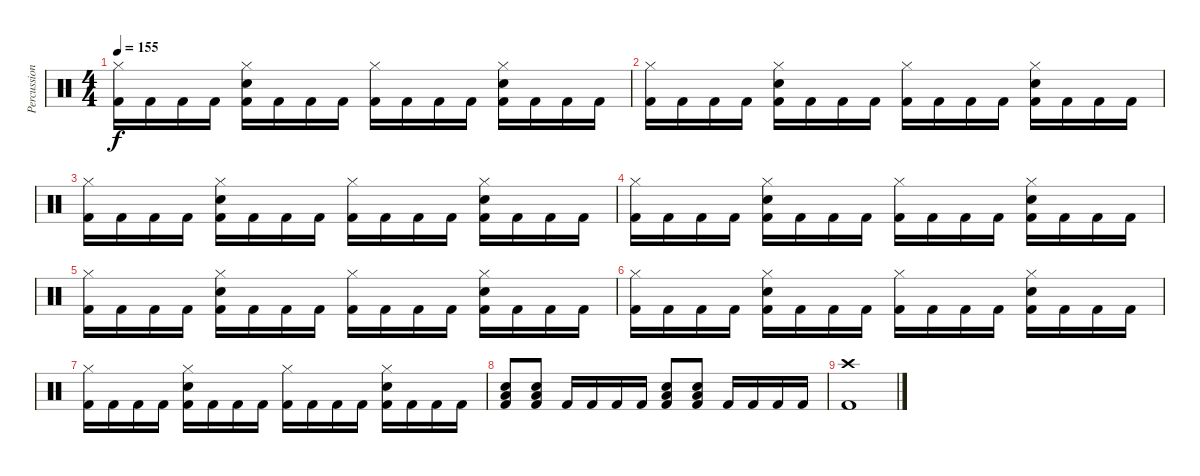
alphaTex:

\track ("Percussion" "Percussion") {instrument percussion}
\staff {score}
\articulation defaults
\ts (4 4)
\tempo 155
\clef neutral
\ks c
("Hi-Hat (closed)" "Kick (hit) 2").16{dy f} "Kick (hit) 2".16 "Kick (hit) 2".16 "Kick (hit) 2".16 ("Hi-Hat (closed)" "Electric Snare (hit)" "Kick (hit) 2").16 "Kick (hit) 2".16 "Kick (hit) 2".16 "Kick (hit) 2".16 ("Hi-Hat (closed)" "Kick (hit) 2").16 "Kick (hit) 2".16 "Kick (hit) 2".16 "Kick (hit) 2".16 ("Hi-Hat (closed)" "Electric Snare (hit)" "Kick (hit) 2").16 "Kick (hit) 2".16 "Kick (hit) 2".16 "Kick (hit) 2".16 |
("Hi-Hat (closed)" "Kick (hit) 2").16 "Kick (hit) 2".16 "Kick (hit) 2".16 "Kick (hit) 2".16 ("Hi-Hat (closed)" "Electric Snare (hit)" "Kick (hit) 2").16 "Kick (hit) 2".16 "Kick (hit) 2".16 "Kick (hit) 2".16 ("Hi-Hat (closed)" "Kick (hit) 2").16 "Kick (hit) 2".16 "Kick (hit) 2".16 "Kick (hit) 2".16 ("Hi-Hat (closed)" "Electric Snare (hit)" "Kick (hit) 2").16 "Kick (hit) 2".16 "Kick (hit) 2".16 "Kick (hit) 2".16 |
("Hi-Hat (closed)" "Kick (hit) 2").16 "Kick (hit) 2".16 "Kick (hit) 2".16 "Kick (hit) 2".16 ("Hi-Hat (closed)" "Electric Snare (hit)" "Kick (hit) 2").16 "Kick (hit) 2".16 "Kick (hit) 2".16 "Kick (hit) 2".16 ("Hi-Hat (closed)" "Kick (hit) 2").16 "Kick (hit) 2".16 "Kick (hit) 2".16 "Kick (hit) 2".16 ("Hi-Hat (closed)" "Electric Snare (hit)" "Kick (hit) 2").16 "Kick (hit) 2".16 "Kick (hit) 2".16 "Kick (hit) 2".16 |
("Hi-Hat (closed)" "Kick (hit) 2").16 "Kick (hit) 2".16 "Kick (hit) 2".16 "Kick (hit) 2".16 ("Hi-Hat (closed)" "Electric Snare (hit)" "Kick (hit) 2").16 "Kick (hit) 2".16 "Kick (hit) 2".16 "Kick (hit) 2".16 ("Hi-Hat (closed)" "Kick (hit) 2").16 "Kick (hit) 2".16 "Kick (hit) 2".16 "Kick (hit) 2".16 ("Hi-Hat (closed)" "Electric Snare (hit)" "Kick (hit) 2").16 "Kick (hit) 2".16 "Kick (hit) 2".16 "Kick (hit) 2".16 |
("Hi-Hat (closed)" "Kick (hit) 2").16 "Kick (hit) 2".16 "Kick (hit) 2".16 "Kick (hit) 2".16 ("Hi-Hat (closed)" "Electric Snare (hit)" "Kick (hit) 2").16 "Kick (hit) 2".16 "Kick (hit) 2".16 "Kick (hit) 2".16 ("Hi-Hat (closed)" "Kick (hit) 2").16 "Kick (hit) 2".16 "Kick (hit) 2".16 "Kick (hit) 2".16 ("Hi-Hat (closed)" "Electric Snare (hit)" "Kick (hit) 2").16 "Kick (hit) 2".16 "Kick (hit) 2".16 "Kick (hit) 2".16 |
("Hi-Hat (closed)" "Kick (hit) 2").16 "Kick (hit) 2".16 "Kick (hit) 2".16 "Kick (hit) 2".16 ("Hi-Hat (closed)" "Electric Snare (hit)" "Kick (hit) 2").16 "Kick (hit) 2".16 "Kick (hit) 2".16 "Kick (hit) 2".16 ("Hi-Hat (closed)" "Kick (hit) 2").16 "Kick (hit) 2".16 "Kick (hit) 2".16 "Kick (hit) 2".16 ("Hi-Hat (closed)" "Electric Snare (hit)" "Kick (hit) 2").16 "Kick (hit) 2".16 "Kick (hit) 2".16 "Kick (hit) 2".16 |
("Hi-Hat (closed)" "Kick (hit) 2").16 "Kick (hit) 2".16 "Kick (hit) 2".16 "Kick (hit) 2".16 ("Hi-Hat (closed)" "Electric Snare (hit)" "Kick (hit) 2").16 "Kick (hit) 2".16 "Kick (hit) 2".16 "Kick (hit) 2".16 ("Hi-Hat (closed)" "Kick (hit) 2").16 "Kick (hit) 2".16 "Kick (hit) 2".16 "Kick (hit) 2".16 ("Hi-Hat (closed)" "Electric Snare (hit)" "Kick (hit) 2").16 "Kick (hit) 2".16 "Kick (hit) 2".16 "Kick (hit) 2".16 |
("Electric Snare (hit)" "Low Tom (hit)" "Kick (hit) 2").8 ("Electric Snare (hit)" "Low Tom (hit)" "Kick (hit) 2").8 "Kick (hit) 2".16 "Kick (hit) 2".16 "Kick (hit) 2".16 "Kick (hit) 2".16 ("Electric Snare (hit)" "Low Tom (hit)" "Kick (hit) 2").8 ("Electric Snare (hit)" "Low Tom (hit)" "Kick (hit) 2").8 "Kick (hit) 2".16 "Kick (hit) 2".16 "Kick (hit) 2".16 "Kick (hit) 2".16 |
("Crash high (hit)" "Kick (hit) 2").1
